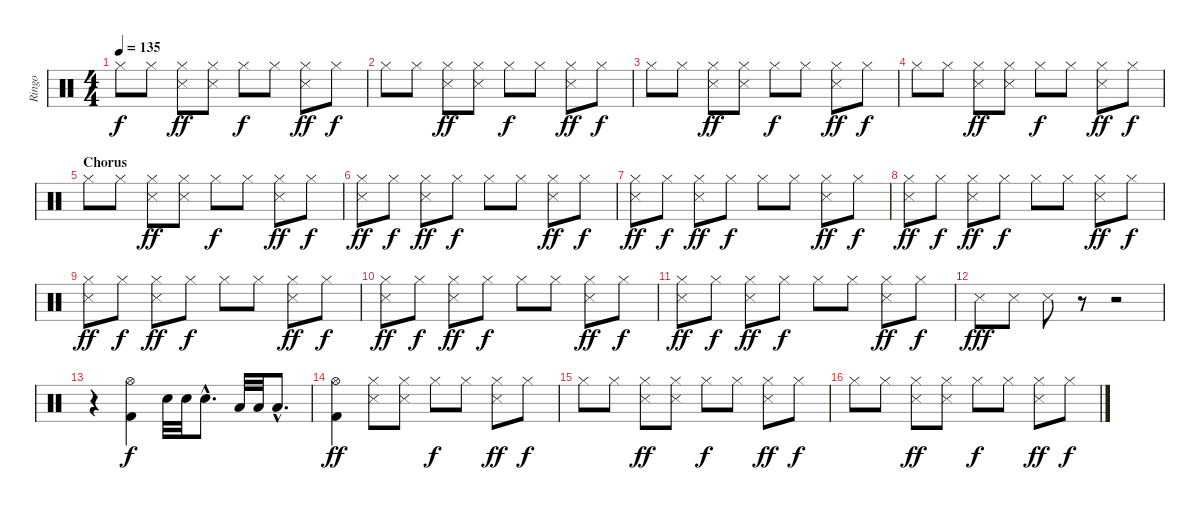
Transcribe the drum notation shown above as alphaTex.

\track ("Ringo" "Ringo") {instrument percussion}
\staff {score}
\articulation defaults
\ts (4 4)
\tempo 135
\clef neutral
\ks c "Hi-Hat (closed)".8{dy f} "Hi-Hat (closed)".8
("Hi-Hat (closed)" "Snare (side stick) 3").8{dy ff} ("Hi-Hat (closed)" "Snare (side stick) 3").8 "Hi-Hat (closed)".8{dy f} "Hi-Hat (closed)".8 ("Hi-Hat (closed)" "Snare (side stick) 3").8{dy ff} "Hi-Hat (closed)".8{dy f} |
"Hi-Hat (closed)".8 "Hi-Hat (closed)".8 ("Hi-Hat (closed)" "Snare (side stick) 3").8{dy ff} ("Hi-Hat (closed)" "Snare (side stick) 3").8 "Hi-Hat (closed)".8{dy f} "Hi-Hat (closed)".8 ("Hi-Hat (closed)" "Snare (side stick) 3").8{dy ff} "Hi-Hat (closed)".8{dy f} |
"Hi-Hat (closed)".8 "Hi-Hat (closed)".8 ("Hi-Hat (closed)" "Snare (side stick) 3").8{dy ff} ("Hi-Hat (closed)" "Snare (side stick) 3").8 "Hi-Hat (closed)".8{dy f} "Hi-Hat (closed)".8 ("Hi-Hat (closed)" "Snare (side stick) 3").8{dy ff} "Hi-Hat (closed)".8{dy f} |
"Hi-Hat (closed)".8 "Hi-Hat (closed)".8 ("Hi-Hat (closed)" "Snare (side stick) 3").8{dy ff} ("Hi-Hat (closed)" "Snare (side stick) 3").8 "Hi-Hat (closed)".8{dy f} "Hi-Hat (closed)".8 ("Hi-Hat (closed)" "Snare (side stick) 3").8{dy ff} "Hi-Hat (closed)".8{dy f} |
\section ("" "Chorus")
"Hi-Hat (closed)".8 "Hi-Hat (closed)".8 ("Hi-Hat (closed)" "Snare (side stick) 3").8{dy ff} ("Hi-Hat (closed)" "Snare (side stick) 3").8 "Hi-Hat (closed)".8{dy f} "Hi-Hat (closed)".8 ("Hi-Hat (closed)" "Snare (side stick) 3").8{dy ff} "Hi-Hat (closed)".8{dy f} |
("Hi-Hat (closed)" "Snare (side stick) 3").8{dy ff} "Hi-Hat (closed)".8{dy f} ("Hi-Hat (closed)" "Snare (side stick) 3").8{dy ff} "Hi-Hat (closed)".8{dy f} "Hi-Hat (closed)".8 "Hi-Hat (closed)".8 ("Hi-Hat (closed)" "Snare (side stick) 3").8{dy ff} "Hi-Hat (closed)".8{dy f} |
("Hi-Hat (closed)" "Snare (side stick) 3").8{dy ff} "Hi-Hat (closed)".8{dy f} ("Hi-Hat (closed)" "Snare (side stick) 3").8{dy ff} "Hi-Hat (closed)".8{dy f} "Hi-Hat (closed)".8 "Hi-Hat (closed)".8 ("Hi-Hat (closed)" "Snare (side stick) 3").8{dy ff} "Hi-Hat (closed)".8{dy f} |
("Hi-Hat (closed)" "Snare (side stick) 3").8{dy ff} "Hi-Hat (closed)".8{dy f} ("Hi-Hat (closed)" "Snare (side stick) 3").8{dy ff} "Hi-Hat (closed)".8{dy f} "Hi-Hat (closed)".8 "Hi-Hat (closed)".8 ("Hi-Hat (closed)" "Snare (side stick) 3").8{dy ff} "Hi-Hat (closed)".8{dy f} |
("Hi-Hat (closed)" "Snare (side stick) 3").8{dy ff} "Hi-Hat (closed)".8{dy f} ("Hi-Hat (closed)" "Snare (side stick) 3").8{dy ff} "Hi-Hat (closed)".8{dy f} "Hi-Hat (closed)".8 "Hi-Hat (closed)".8 ("Hi-Hat (closed)" "Snare (side stick) 3").8{dy ff} "Hi-Hat (closed)".8{dy f} |
("Hi-Hat (closed)" "Snare (side stick) 3").8{dy ff} "Hi-Hat (closed)".8{dy f} ("Hi-Hat (closed)" "Snare (side stick) 3").8{dy ff} "Hi-Hat (closed)".8{dy f} "Hi-Hat (closed)".8 "Hi-Hat (closed)".8 ("Hi-Hat (closed)" "Snare (side stick) 3").8{dy ff} "Hi-Hat (closed)".8{dy f} |
("Hi-Hat (closed)" "Snare (side stick) 3").8{dy ff} "Hi-Hat (closed)".8{dy f} ("Hi-Hat (closed)" "Snare (side stick) 3").8{dy ff} "Hi-Hat (closed)".8{dy f} "Hi-Hat (closed)".8 "Hi-Hat (closed)".8 ("Hi-Hat (closed)" "Snare (side stick) 3").8{dy ff} "Hi-Hat (closed)".8{dy f} |
"Snare (side stick) 3".8{dy fff} "Snare (side stick) 3".8 "Snare (side stick) 3".8 r.8 r.2 |
r.4 ("Hi-Hat (open)" "Kick (hit) 2").4{dy f} "Electric Snare (hit)".32 "Electric Snare (hit)".32 "Electric Snare (hit)"{hac}.8{d} "Low Tom (hit)".32 "Low Tom (hit)".32 "Low Tom (hit)"{hac}.8{d} |
("Hi-Hat (open)" "Kick (hit) 2").4{dy ff} ("Hi-Hat (closed)" "Snare (side stick) 3").8 ("Hi-Hat (closed)" "Snare (side stick) 3").8 "Hi-Hat (closed)".8{dy f} "Hi-Hat (closed)".8 ("Hi-Hat (closed)" "Snare (side stick) 3").8{dy ff} "Hi-Hat (closed)".8{dy f} |
"Hi-Hat (closed)".8 "Hi-Hat (closed)".8 ("Hi-Hat (closed)" "Snare (side stick) 3").8{dy ff} ("Hi-Hat (closed)" "Snare (side stick) 3").8 "Hi-Hat (closed)".8{dy f} "Hi-Hat (closed)".8 ("Hi-Hat (closed)" "Snare (side stick) 3").8{dy ff} "Hi-Hat (closed)".8{dy f} |
"Hi-Hat (closed)".8 "Hi-Hat (closed)".8 ("Hi-Hat (closed)" "Snare (side stick) 3").8{dy ff} ("Hi-Hat (closed)" "Snare (side stick) 3").8 "Hi-Hat (closed)".8{dy f} "Hi-Hat (closed)".8 ("Hi-Hat (closed)" "Snare (side stick) 3").8{dy ff} "Hi-Hat (closed)".8{dy f}
